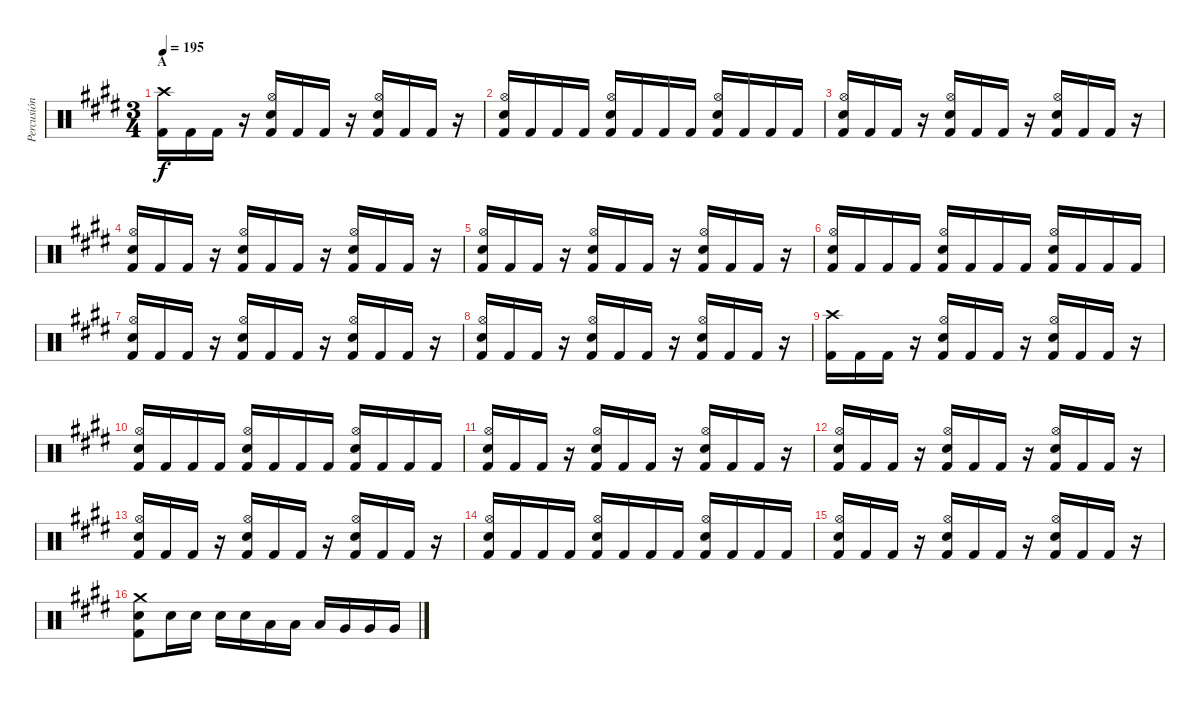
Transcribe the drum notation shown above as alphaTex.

\track ("Percusión" "Percusión") {instrument percussion}
\staff {score}
\articulation defaults
\ts (3 4)
\section ("" "A")
\tempo 195
\clef neutral
\ks e
("Crash high (hit)" "Kick (hit) 2").16{dy f} "Kick (hit) 2".16 "Kick (hit) 2".16 r.16 ("Hi-Hat (open)" "Electric Snare (hit)" "Kick (hit) 2").16 "Kick (hit) 2".16 "Kick (hit) 2".16 r.16 ("Hi-Hat (open)" "Electric Snare (hit)" "Kick (hit) 2").16 "Kick (hit) 2".16 "Kick (hit) 2".16 r.16 |
("Hi-Hat (open)" "Electric Snare (hit)" "Kick (hit) 2").16 "Kick (hit) 2".16 "Kick (hit) 2".16 "Kick (hit) 2".16 ("Hi-Hat (open)" "Electric Snare (hit)" "Kick (hit) 2").16 "Kick (hit) 2".16 "Kick (hit) 2".16 "Kick (hit) 2".16 ("Hi-Hat (open)" "Electric Snare (hit)" "Kick (hit) 2").16 "Kick (hit) 2".16 "Kick (hit) 2".16 "Kick (hit) 2".16 |
("Hi-Hat (open)" "Electric Snare (hit)" "Kick (hit) 2").16 "Kick (hit) 2".16 "Kick (hit) 2".16 r.16 ("Hi-Hat (open)" "Electric Snare (hit)" "Kick (hit) 2").16 "Kick (hit) 2".16 "Kick (hit) 2".16 r.16 ("Hi-Hat (open)" "Electric Snare (hit)" "Kick (hit) 2").16 "Kick (hit) 2".16 "Kick (hit) 2".16 r.16 |
("Hi-Hat (open)" "Electric Snare (hit)" "Kick (hit) 2").16 "Kick (hit) 2".16 "Kick (hit) 2".16 r.16 ("Hi-Hat (open)" "Electric Snare (hit)" "Kick (hit) 2").16 "Kick (hit) 2".16 "Kick (hit) 2".16 r.16 ("Hi-Hat (open)" "Electric Snare (hit)" "Kick (hit) 2").16 "Kick (hit) 2".16 "Kick (hit) 2".16 r.16 |
("Hi-Hat (open)" "Electric Snare (hit)" "Kick (hit) 2").16 "Kick (hit) 2".16 "Kick (hit) 2".16 r.16 ("Hi-Hat (open)" "Electric Snare (hit)" "Kick (hit) 2").16 "Kick (hit) 2".16 "Kick (hit) 2".16 r.16 ("Hi-Hat (open)" "Electric Snare (hit)" "Kick (hit) 2").16 "Kick (hit) 2".16 "Kick (hit) 2".16 r.16 |
("Hi-Hat (open)" "Electric Snare (hit)" "Kick (hit) 2").16 "Kick (hit) 2".16 "Kick (hit) 2".16 "Kick (hit) 2".16 ("Hi-Hat (open)" "Electric Snare (hit)" "Kick (hit) 2").16 "Kick (hit) 2".16 "Kick (hit) 2".16 "Kick (hit) 2".16 ("Hi-Hat (open)" "Electric Snare (hit)" "Kick (hit) 2").16 "Kick (hit) 2".16 "Kick (hit) 2".16 "Kick (hit) 2".16 |
("Hi-Hat (open)" "Electric Snare (hit)" "Kick (hit) 2").16 "Kick (hit) 2".16 "Kick (hit) 2".16 r.16 ("Hi-Hat (open)" "Electric Snare (hit)" "Kick (hit) 2").16 "Kick (hit) 2".16 "Kick (hit) 2".16 r.16 ("Hi-Hat (open)" "Electric Snare (hit)" "Kick (hit) 2").16 "Kick (hit) 2".16 "Kick (hit) 2".16 r.16 |
("Hi-Hat (open)" "Electric Snare (hit)" "Kick (hit) 2").16 "Kick (hit) 2".16 "Kick (hit) 2".16 r.16 ("Hi-Hat (open)" "Electric Snare (hit)" "Kick (hit) 2").16 "Kick (hit) 2".16 "Kick (hit) 2".16 r.16 ("Hi-Hat (open)" "Electric Snare (hit)" "Kick (hit) 2").16 "Kick (hit) 2".16 "Kick (hit) 2".16 r.16 |
("Crash high (hit)" "Kick (hit) 2").16 "Kick (hit) 2".16 "Kick (hit) 2".16 r.16 ("Hi-Hat (open)" "Electric Snare (hit)" "Kick (hit) 2").16 "Kick (hit) 2".16 "Kick (hit) 2".16 r.16 ("Hi-Hat (open)" "Electric Snare (hit)" "Kick (hit) 2").16 "Kick (hit) 2".16 "Kick (hit) 2".16 r.16 |
("Hi-Hat (open)" "Electric Snare (hit)" "Kick (hit) 2").16 "Kick (hit) 2".16 "Kick (hit) 2".16 "Kick (hit) 2".16 ("Hi-Hat (open)" "Electric Snare (hit)" "Kick (hit) 2").16 "Kick (hit) 2".16 "Kick (hit) 2".16 "Kick (hit) 2".16 ("Hi-Hat (open)" "Electric Snare (hit)" "Kick (hit) 2").16 "Kick (hit) 2".16 "Kick (hit) 2".16 "Kick (hit) 2".16 |
("Hi-Hat (open)" "Electric Snare (hit)" "Kick (hit) 2").16 "Kick (hit) 2".16 "Kick (hit) 2".16 r.16 ("Hi-Hat (open)" "Electric Snare (hit)" "Kick (hit) 2").16 "Kick (hit) 2".16 "Kick (hit) 2".16 r.16 ("Hi-Hat (open)" "Electric Snare (hit)" "Kick (hit) 2").16 "Kick (hit) 2".16 "Kick (hit) 2".16 r.16 |
("Hi-Hat (open)" "Electric Snare (hit)" "Kick (hit) 2").16 "Kick (hit) 2".16 "Kick (hit) 2".16 r.16 ("Hi-Hat (open)" "Electric Snare (hit)" "Kick (hit) 2").16 "Kick (hit) 2".16 "Kick (hit) 2".16 r.16 ("Hi-Hat (open)" "Electric Snare (hit)" "Kick (hit) 2").16 "Kick (hit) 2".16 "Kick (hit) 2".16 r.16 |
("Hi-Hat (open)" "Electric Snare (hit)" "Kick (hit) 2").16 "Kick (hit) 2".16 "Kick (hit) 2".16 r.16 ("Hi-Hat (open)" "Electric Snare (hit)" "Kick (hit) 2").16 "Kick (hit) 2".16 "Kick (hit) 2".16 r.16 ("Hi-Hat (open)" "Electric Snare (hit)" "Kick (hit) 2").16 "Kick (hit) 2".16 "Kick (hit) 2".16 r.16 |
("Hi-Hat (open)" "Electric Snare (hit)" "Kick (hit) 2").16 "Kick (hit) 2".16 "Kick (hit) 2".16 "Kick (hit) 2".16 ("Hi-Hat (open)" "Electric Snare (hit)" "Kick (hit) 2").16 "Kick (hit) 2".16 "Kick (hit) 2".16 "Kick (hit) 2".16 ("Hi-Hat (open)" "Electric Snare (hit)" "Kick (hit) 2").16 "Kick (hit) 2".16 "Kick (hit) 2".16 "Kick (hit) 2".16 |
("Hi-Hat (open)" "Electric Snare (hit)" "Kick (hit) 2").16 "Kick (hit) 2".16 "Kick (hit) 2".16 r.16 ("Hi-Hat (open)" "Electric Snare (hit)" "Kick (hit) 2").16 "Kick (hit) 2".16 "Kick (hit) 2".16 r.16 ("Hi-Hat (open)" "Electric Snare (hit)" "Kick (hit) 2").16 "Kick (hit) 2".16 "Kick (hit) 2".16 r.16 |
("Crash medium (hit)" "Electric Snare (hit)" "Kick (hit) 2").8 "Electric Snare (hit)".16 "Electric Snare (hit)".16 "Electric Snare (hit)".16 "Electric Snare (hit)".16 "Low Tom (hit)".16 "Low Tom (hit)".16 "Low Tom (hit)".16 "Very Low Tom (hit)".16 "Very Low Tom (hit)".16 "Very Low Tom (hit)".16
